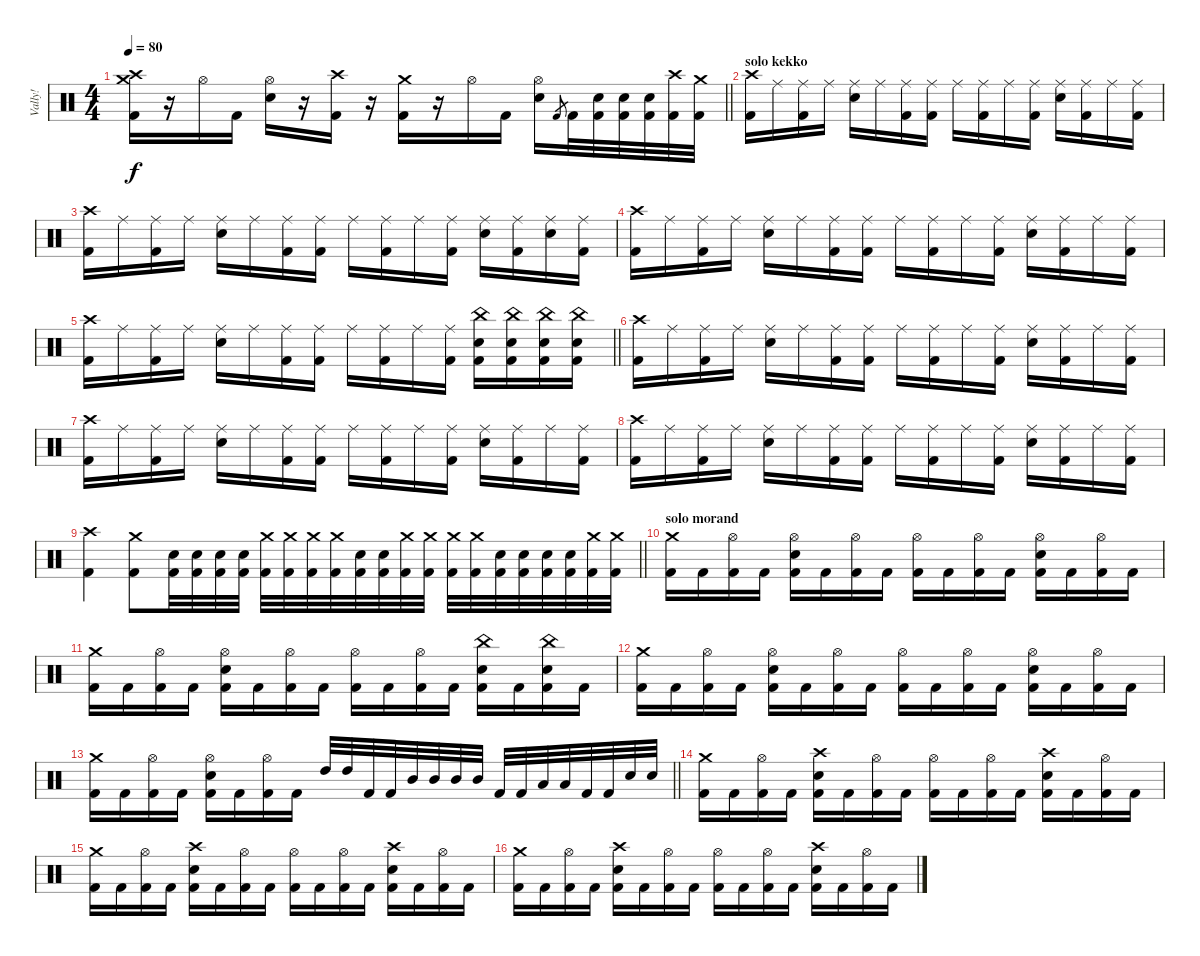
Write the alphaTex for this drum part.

\track ("Vally!" "Vally!") {instrument percussion}
\staff {score}
\articulation defaults
\ts (4 4)
\tempo 80
\clef neutral
\barLineRight lightlight
\ks c
("Crash high (hit)" "Crash medium (hit)" "Kick (hit) 2").16{dy f} r.16 "Hi-Hat (open)".16 "Kick (hit) 2".16 ("Hi-Hat (open)" "Electric Snare (hit)").16 r.16 ("Crash high (hit)" "Kick (hit) 2").16 r.16 ("Crash medium (hit)" "Kick (hit) 2").16 r.16 "Hi-Hat (open)".16 "Kick (hit) 2".16 ("Hi-Hat (open)" "Electric Snare (hit)").16 "Kick (hit) 2".8{gr} "Kick (hit) 2".32 ("Electric Snare (hit)" "Kick (hit) 2").32 ("Electric Snare (hit)" "Kick (hit) 2").32 ("Electric Snare (hit)" "Kick (hit) 2").32 ("Crash high (hit)" "Kick (hit) 2").32 ("Crash medium (hit)" "Kick (hit) 2").32 |
\section ("" "solo kekko")
("Crash high (hit)" "Kick (hit) 2").16 "Ride (middle)".16 ("Ride (middle)" "Kick (hit) 2").16 "Ride (middle)".16 ("Ride (middle)" "Electric Snare (hit)").16 "Ride (middle)".16 ("Ride (middle)" "Kick (hit) 2").16 ("Ride (middle)" "Kick (hit) 2").16 "Ride (middle)".16 ("Ride (middle)" "Kick (hit) 2").16 "Ride (middle)".16 ("Ride (middle)" "Kick (hit) 2").16 ("Ride (middle)" "Electric Snare (hit)").16 ("Ride (middle)" "Kick (hit) 2").16 "Ride (middle)".16 ("Ride (middle)" "Kick (hit) 2").16 |
("Crash high (hit)" "Kick (hit) 2").16 "Ride (middle)".16 ("Ride (middle)" "Kick (hit) 2").16 "Ride (middle)".16 ("Ride (middle)" "Electric Snare (hit)").16 "Ride (middle)".16 ("Ride (middle)" "Kick (hit) 2").16 ("Ride (middle)" "Kick (hit) 2").16 "Ride (middle)".16 ("Ride (middle)" "Kick (hit) 2").16 "Ride (middle)".16 ("Ride (middle)" "Kick (hit) 2").16 ("Ride (middle)" "Electric Snare (hit)").16 ("Ride (middle)" "Kick (hit) 2").16 ("Ride (middle)" "Electric Snare (hit)").16 ("Ride (middle)" "Kick (hit) 2").16 |
("Crash high (hit)" "Kick (hit) 2").16 "Ride (middle)".16 ("Ride (middle)" "Kick (hit) 2").16 "Ride (middle)".16 ("Ride (middle)" "Electric Snare (hit)").16 "Ride (middle)".16 ("Ride (middle)" "Kick (hit) 2").16 ("Ride (middle)" "Kick (hit) 2").16 "Ride (middle)".16 ("Ride (middle)" "Kick (hit) 2").16 "Ride (middle)".16 ("Ride (middle)" "Kick (hit) 2").16 ("Ride (middle)" "Electric Snare (hit)").16 ("Ride (middle)" "Kick (hit) 2").16 "Ride (middle)".16 ("Ride (middle)" "Kick (hit) 2").16 |
\barLineRight lightlight
("Crash high (hit)" "Kick (hit) 2").16 "Ride (middle)".16 ("Ride (middle)" "Kick (hit) 2").16 "Ride (middle)".16 ("Ride (middle)" "Electric Snare (hit)").16 "Ride (middle)".16 ("Ride (middle)" "Kick (hit) 2").16 ("Ride (middle)" "Kick (hit) 2").16 "Ride (middle)".16 ("Ride (middle)" "Kick (hit) 2").16 "Ride (middle)".16 ("Ride (middle)" "Kick (hit) 2").16 ("China (hit)" "Electric Snare (hit)" "Kick (hit) 2").16 ("China (hit)" "Electric Snare (hit)" "Kick (hit) 2").16 ("China (hit)" "Electric Snare (hit)" "Kick (hit) 2").16 ("China (hit)" "Electric Snare (hit)" "Kick (hit) 2").16 |
("Crash high (hit)" "Kick (hit) 2").16 "Ride (middle)".16 ("Ride (middle)" "Kick (hit) 2").16 "Ride (middle)".16 ("Ride (middle)" "Electric Snare (hit)").16 "Ride (middle)".16 ("Ride (middle)" "Kick (hit) 2").16 ("Ride (middle)" "Kick (hit) 2").16 "Ride (middle)".16 ("Ride (middle)" "Kick (hit) 2").16 "Ride (middle)".16 ("Ride (middle)" "Kick (hit) 2").16 ("Ride (middle)" "Electric Snare (hit)").16 ("Ride (middle)" "Kick (hit) 2").16 "Ride (middle)".16 ("Ride (middle)" "Kick (hit) 2").16 |
("Crash high (hit)" "Kick (hit) 2").16 "Ride (middle)".16 ("Ride (middle)" "Kick (hit) 2").16 "Ride (middle)".16 ("Ride (middle)" "Electric Snare (hit)").16 "Ride (middle)".16 ("Ride (middle)" "Kick (hit) 2").16 ("Ride (middle)" "Kick (hit) 2").16 "Ride (middle)".16 ("Ride (middle)" "Kick (hit) 2").16 "Ride (middle)".16 ("Ride (middle)" "Kick (hit) 2").16 ("Ride (middle)" "Electric Snare (hit)").16 ("Ride (middle)" "Kick (hit) 2").16 "Ride (middle)".16 ("Ride (middle)" "Kick (hit) 2").16 |
("Crash high (hit)" "Kick (hit) 2").16 "Ride (middle)".16 ("Ride (middle)" "Kick (hit) 2").16 "Ride (middle)".16 ("Ride (middle)" "Electric Snare (hit)").16 "Ride (middle)".16 ("Ride (middle)" "Kick (hit) 2").16 ("Ride (middle)" "Kick (hit) 2").16 "Ride (middle)".16 ("Ride (middle)" "Kick (hit) 2").16 "Ride (middle)".16 ("Ride (middle)" "Kick (hit) 2").16 ("Ride (middle)" "Electric Snare (hit)").16 ("Ride (middle)" "Kick (hit) 2").16 "Ride (middle)".16 ("Ride (middle)" "Kick (hit) 2").16 |
\barLineRight lightlight
("Crash high (hit)" "Kick (hit) 2").4 ("Crash medium (hit)" "Kick (hit) 2").8 ("Electric Snare (hit)" "Kick (hit) 2").32 ("Electric Snare (hit)" "Kick (hit) 2").32 ("Electric Snare (hit)" "Kick (hit) 2").32 ("Electric Snare (hit)" "Kick (hit) 2").32 ("Crash medium (hit)" "Kick (hit) 2").32 ("Crash medium (hit)" "Kick (hit) 2").32 ("Crash medium (hit)" "Kick (hit) 2").32 ("Crash medium (hit)" "Kick (hit) 2").32 ("Electric Snare (hit)" "Kick (hit) 2").32 ("Electric Snare (hit)" "Kick (hit) 2").32 ("Crash medium (hit)" "Kick (hit) 2").32 ("Crash medium (hit)" "Kick (hit) 2").32 ("Crash medium (hit)" "Kick (hit) 2").32 ("Crash medium (hit)" "Kick (hit) 2").32 ("Electric Snare (hit)" "Kick (hit) 2").32 ("Electric Snare (hit)" "Kick (hit) 2").32 ("Electric Snare (hit)" "Kick (hit) 2").32 ("Electric Snare (hit)" "Kick (hit) 2").32 ("Crash medium (hit)" "Kick (hit) 2").32 ("Crash medium (hit)" "Kick (hit) 2").32 |
\section ("" "solo morand")
("Crash medium (hit)" "Kick (hit) 2").16 "Kick (hit) 2".16 ("Hi-Hat (open)" "Kick (hit) 2").16 "Kick (hit) 2".16 ("Hi-Hat (open)" "Electric Snare (hit)" "Kick (hit) 2").16 "Kick (hit) 2".16 ("Hi-Hat (open)" "Kick (hit) 2").16 "Kick (hit) 2".16 ("Hi-Hat (open)" "Kick (hit) 2").16 "Kick (hit) 2".16 ("Hi-Hat (open)" "Kick (hit) 2").16 "Kick (hit) 2".16 ("Hi-Hat (open)" "Electric Snare (hit)" "Kick (hit) 2").16 "Kick (hit) 2".16 ("Hi-Hat (open)" "Kick (hit) 2").16 "Kick (hit) 2".16 |
("Crash medium (hit)" "Kick (hit) 2").16 "Kick (hit) 2".16 ("Hi-Hat (open)" "Kick (hit) 2").16 "Kick (hit) 2".16 ("Hi-Hat (open)" "Electric Snare (hit)" "Kick (hit) 2").16 "Kick (hit) 2".16 ("Hi-Hat (open)" "Kick (hit) 2").16 "Kick (hit) 2".16 ("Hi-Hat (open)" "Kick (hit) 2").16 "Kick (hit) 2".16 ("Hi-Hat (open)" "Kick (hit) 2").16 "Kick (hit) 2".16 ("China (hit)" "Electric Snare (hit)" "Kick (hit) 2").16 "Kick (hit) 2".16 ("China (hit)" "Electric Snare (hit)" "Kick (hit) 2").16 "Kick (hit) 2".16 |
("Crash medium (hit)" "Kick (hit) 2").16 "Kick (hit) 2".16 ("Hi-Hat (open)" "Kick (hit) 2").16 "Kick (hit) 2".16 ("Hi-Hat (open)" "Electric Snare (hit)" "Kick (hit) 2").16 "Kick (hit) 2".16 ("Hi-Hat (open)" "Kick (hit) 2").16 "Kick (hit) 2".16 ("Hi-Hat (open)" "Kick (hit) 2").16 "Kick (hit) 2".16 ("Hi-Hat (open)" "Kick (hit) 2").16 "Kick (hit) 2".16 ("Hi-Hat (open)" "Electric Snare (hit)" "Kick (hit) 2").16 "Kick (hit) 2".16 ("Hi-Hat (open)" "Kick (hit) 2").16 "Kick (hit) 2".16 |
\barLineRight lightlight
("Crash medium (hit)" "Kick (hit) 2").16 "Kick (hit) 2".16 ("Hi-Hat (open)" "Kick (hit) 2").16 "Kick (hit) 2".16 ("Hi-Hat (open)" "Electric Snare (hit)" "Kick (hit) 2").16 "Kick (hit) 2".16 ("Hi-Hat (open)" "Kick (hit) 2").16 "Kick (hit) 2".16 "High Tom (hit)".32 "High Tom (hit)".32 "Kick (hit) 2".32 "Kick (hit) 2".32 "Mid Tom (hit)".32 "Mid Tom (hit)".32 "Mid Tom (hit)".32 "Mid Tom (hit)".32 "Kick (hit) 2".32 "Kick (hit) 2".32 "Low Tom (hit)".32 "Low Tom (hit)".32 "Kick (hit) 2".32 "Kick (hit) 2".32 "Electric Snare (hit)".32 "Electric Snare (hit)".32 |
("Crash medium (hit)" "Kick (hit) 2").16 "Kick (hit) 2".16 ("Hi-Hat (open)" "Kick (hit) 2").16 "Kick (hit) 2".16 ("Crash high (hit)" "Electric Snare (hit)" "Kick (hit) 2").16 "Kick (hit) 2".16 ("Hi-Hat (open)" "Kick (hit) 2").16 "Kick (hit) 2".16 ("Hi-Hat (open)" "Kick (hit) 2").16 "Kick (hit) 2".16 ("Hi-Hat (open)" "Kick (hit) 2").16 "Kick (hit) 2".16 ("Crash high (hit)" "Electric Snare (hit)" "Kick (hit) 2").16 "Kick (hit) 2".16 ("Hi-Hat (open)" "Kick (hit) 2").16 "Kick (hit) 2".16 |
("Crash medium (hit)" "Kick (hit) 2").16 "Kick (hit) 2".16 ("Hi-Hat (open)" "Kick (hit) 2").16 "Kick (hit) 2".16 ("Crash high (hit)" "Electric Snare (hit)" "Kick (hit) 2").16 "Kick (hit) 2".16 ("Hi-Hat (open)" "Kick (hit) 2").16 "Kick (hit) 2".16 ("Hi-Hat (open)" "Kick (hit) 2").16 "Kick (hit) 2".16 ("Hi-Hat (open)" "Kick (hit) 2").16 "Kick (hit) 2".16 ("Crash high (hit)" "Electric Snare (hit)" "Kick (hit) 2").16 "Kick (hit) 2".16 ("Hi-Hat (open)" "Kick (hit) 2").16 "Kick (hit) 2".16 |
("Crash medium (hit)" "Kick (hit) 2").16 "Kick (hit) 2".16 ("Hi-Hat (open)" "Kick (hit) 2").16 "Kick (hit) 2".16 ("Crash high (hit)" "Electric Snare (hit)" "Kick (hit) 2").16 "Kick (hit) 2".16 ("Hi-Hat (open)" "Kick (hit) 2").16 "Kick (hit) 2".16 ("Hi-Hat (open)" "Kick (hit) 2").16 "Kick (hit) 2".16 ("Hi-Hat (open)" "Kick (hit) 2").16 "Kick (hit) 2".16 ("Crash high (hit)" "Electric Snare (hit)" "Kick (hit) 2").16 "Kick (hit) 2".16 ("Hi-Hat (open)" "Kick (hit) 2").16 "Kick (hit) 2".16
